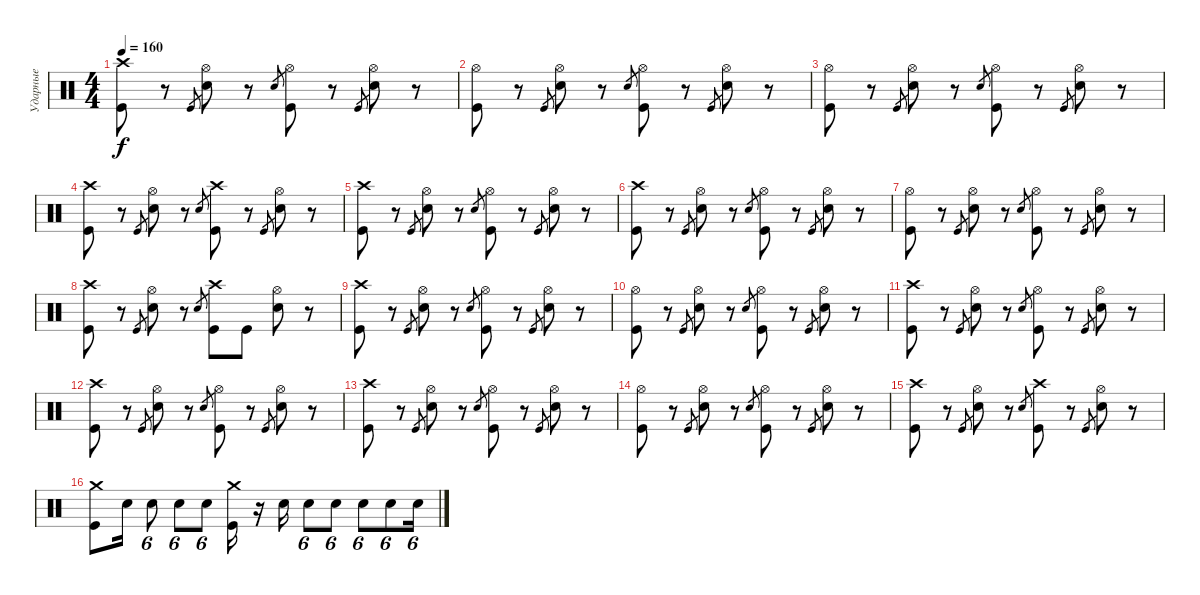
\track ("Ударные" "Ударные") {instrument percussion}
\staff {score}
\articulation defaults
\ts (4 4)
\tempo 160
\clef neutral
\ks c
("Kick (hit)" "Crash high (hit)").8{dy f} r.8 "Kick (hit)".8{gr} ("Electric Snare (hit)" "Hi-Hat (open)").8 r.8 "Electric Snare (hit)".8{gr} ("Kick (hit)" "Hi-Hat (open)").8 r.8 "Kick (hit)".8{gr} ("Electric Snare (hit)" "Hi-Hat (open)").8 r.8 |
("Kick (hit)" "Hi-Hat (open)").8 r.8 "Kick (hit)".8{gr} ("Electric Snare (hit)" "Hi-Hat (open)").8 r.8 "Electric Snare (hit)".8{gr} ("Kick (hit)" "Hi-Hat (open)").8 r.8 "Kick (hit)".8{gr} ("Electric Snare (hit)" "Hi-Hat (open)").8 r.8 |
("Kick (hit)" "Hi-Hat (open)").8 r.8 "Kick (hit)".8{gr} ("Electric Snare (hit)" "Hi-Hat (open)").8 r.8 "Electric Snare (hit)".8{gr} ("Kick (hit)" "Hi-Hat (open)").8 r.8 "Kick (hit)".8{gr} ("Electric Snare (hit)" "Hi-Hat (open)").8 r.8 |
("Kick (hit)" "Crash high (hit)").8 r.8 "Kick (hit)".8{gr} ("Electric Snare (hit)" "Hi-Hat (open)").8 r.8 "Electric Snare (hit)".8{gr} ("Kick (hit)" "Crash high (hit)").8 r.8 "Kick (hit)".8{gr} ("Electric Snare (hit)" "Hi-Hat (open)").8 r.8 |
("Kick (hit)" "Crash high (hit)").8 r.8 "Kick (hit)".8{gr} ("Electric Snare (hit)" "Hi-Hat (open)").8 r.8 "Electric Snare (hit)".8{gr} ("Kick (hit)" "Hi-Hat (open)").8 r.8 "Kick (hit)".8{gr} ("Electric Snare (hit)" "Hi-Hat (open)").8 r.8 |
("Kick (hit)" "Crash high (hit)").8 r.8 "Kick (hit)".8{gr} ("Electric Snare (hit)" "Hi-Hat (open)").8 r.8 "Electric Snare (hit)".8{gr} ("Kick (hit)" "Hi-Hat (open)").8 r.8 "Kick (hit)".8{gr} ("Electric Snare (hit)" "Hi-Hat (open)").8 r.8 |
("Kick (hit)" "Hi-Hat (open)").8 r.8 "Kick (hit)".8{gr} ("Electric Snare (hit)" "Hi-Hat (open)").8 r.8 "Electric Snare (hit)".8{gr} ("Kick (hit)" "Hi-Hat (open)").8 r.8 "Kick (hit)".8{gr} ("Electric Snare (hit)" "Hi-Hat (open)").8 r.8 |
("Kick (hit)" "Crash high (hit)").8 r.8 "Kick (hit)".8{gr} ("Electric Snare (hit)" "Hi-Hat (open)").8 r.8 "Electric Snare (hit)".8{gr} ("Kick (hit)" "Crash high (hit)").8 "Kick (hit)".8 ("Electric Snare (hit)" "Hi-Hat (open)").8 r.8 |
("Kick (hit)" "Crash high (hit)").8 r.8 "Kick (hit)".8{gr} ("Electric Snare (hit)" "Hi-Hat (open)").8 r.8 "Electric Snare (hit)".8{gr} ("Kick (hit)" "Hi-Hat (open)").8 r.8 "Kick (hit)".8{gr} ("Electric Snare (hit)" "Hi-Hat (open)").8 r.8 |
("Kick (hit)" "Hi-Hat (open)").8 r.8 "Kick (hit)".8{gr} ("Electric Snare (hit)" "Hi-Hat (open)").8 r.8 "Electric Snare (hit)".8{gr} ("Kick (hit)" "Hi-Hat (open)").8 r.8 "Kick (hit)".8{gr} ("Electric Snare (hit)" "Hi-Hat (open)").8 r.8 |
("Kick (hit)" "Crash high (hit)").8 r.8 "Kick (hit)".8{gr} ("Electric Snare (hit)" "Hi-Hat (open)").8 r.8 "Electric Snare (hit)".8{gr} ("Kick (hit)" "Hi-Hat (open)").8 r.8 "Kick (hit)".8{gr} ("Electric Snare (hit)" "Hi-Hat (open)").8 r.8 |
("Kick (hit)" "Crash high (hit)").8 r.8 "Kick (hit)".8{gr} ("Electric Snare (hit)" "Hi-Hat (open)").8 r.8 "Electric Snare (hit)".8{gr} ("Kick (hit)" "Hi-Hat (open)").8 r.8 "Kick (hit)".8{gr} ("Electric Snare (hit)" "Hi-Hat (open)").8 r.8 |
("Kick (hit)" "Crash high (hit)").8 r.8 "Kick (hit)".8{gr} ("Electric Snare (hit)" "Hi-Hat (open)").8 r.8 "Electric Snare (hit)".8{gr} ("Kick (hit)" "Hi-Hat (open)").8 r.8 "Kick (hit)".8{gr} ("Electric Snare (hit)" "Hi-Hat (open)").8 r.8 |
("Kick (hit)" "Hi-Hat (open)").8 r.8 "Kick (hit)".8{gr} ("Electric Snare (hit)" "Hi-Hat (open)").8 r.8 "Electric Snare (hit)".8{gr} ("Kick (hit)" "Hi-Hat (open)").8 r.8 "Kick (hit)".8{gr} ("Electric Snare (hit)" "Hi-Hat (open)").8 r.8 |
("Kick (hit)" "Crash high (hit)").8 r.8 "Kick (hit)".8{gr} ("Electric Snare (hit)" "Hi-Hat (open)").8 r.8 "Electric Snare (hit)".8{gr} ("Kick (hit)" "Crash high (hit)").8 r.8 "Kick (hit)".8{gr} ("Electric Snare (hit)" "Hi-Hat (open)").8 r.8 |
("Kick (hit)" "Crash medium (hit)").8 "Electric Snare (hit)".16 "Electric Snare (hit)".8{tu (6 4)} "Electric Snare (hit)".8{tu (6 4)} "Electric Snare (hit)".8{tu (6 4)} ("Kick (hit)" "Crash medium (hit)").16 r.16 "Electric Snare (hit)".16 "Electric Snare (hit)".8{tu (6 4)} "Electric Snare (hit)".8{tu (6 4)} "Electric Snare (hit)".8{tu (6 4)} "Electric Snare (hit)".8{tu (6 4)} "Electric Snare (hit)".16{tu (6 4)}
